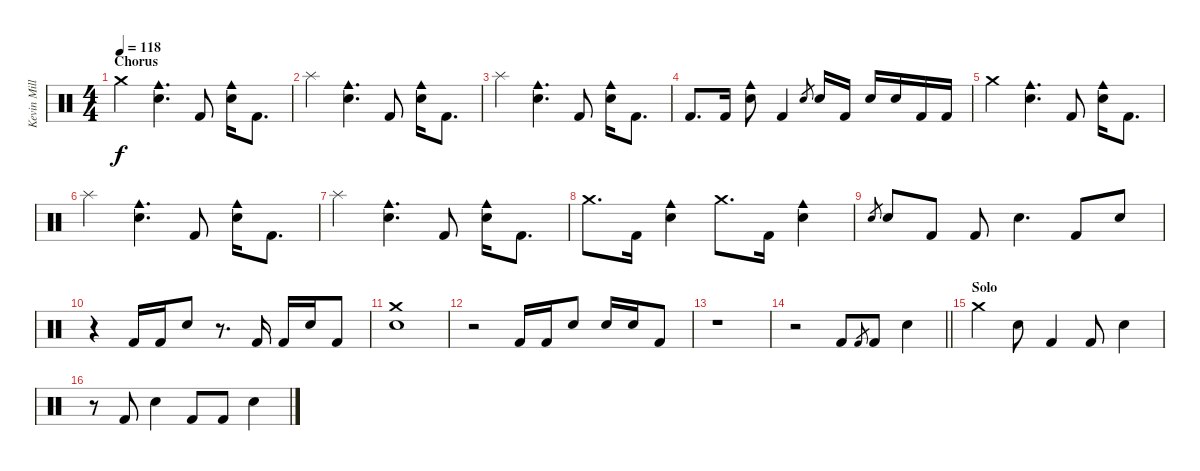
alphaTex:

\track ("Kevin Miller (Drums)" "Kevin Mill") {instrument percussion}
\staff {score}
\articulation defaults
\ts (4 4)
\section ("" "Chorus")
\tempo 118
\clef neutral
\ks c "Crash medium (hit)".4{dy f}
("Electric Snare (hit)" "Cowbell medium (hit)").4{d} "Kick (hit) 2".8 ("Electric Snare (hit)" "Cowbell medium (hit)").16 "Kick (hit) 2".8{d} |
"Splash (hit)".4 ("Electric Snare (hit)" "Cowbell medium (hit)").4{d} "Kick (hit) 2".8 ("Electric Snare (hit)" "Cowbell medium (hit)").16 "Kick (hit) 2".8{d} |
"Splash (hit)".4 ("Electric Snare (hit)" "Cowbell medium (hit)").4{d} "Kick (hit) 2".8 ("Electric Snare (hit)" "Cowbell medium (hit)").16 "Kick (hit) 2".8{d} |
"Kick (hit) 2".8{d} "Kick (hit) 2".16 ("Electric Snare (hit)" "Cowbell medium (hit)").8 "Kick (hit) 2".4 "Electric Snare (hit)".8{gr} "Electric Snare (hit)".16 "Kick (hit) 2".16 "Electric Snare (hit)".16 "Electric Snare (hit)".16 "Kick (hit) 2".16 "Kick (hit) 2".16 |
"Crash medium (hit)".4 ("Electric Snare (hit)" "Cowbell medium (hit)").4{d} "Kick (hit) 2".8 ("Electric Snare (hit)" "Cowbell medium (hit)").16 "Kick (hit) 2".8{d} |
"Splash (hit)".4 ("Electric Snare (hit)" "Cowbell medium (hit)").4{d} "Kick (hit) 2".8 ("Electric Snare (hit)" "Cowbell medium (hit)").16 "Kick (hit) 2".8{d} |
"Splash (hit)".4 ("Electric Snare (hit)" "Cowbell medium (hit)").4{d} "Kick (hit) 2".8 ("Electric Snare (hit)" "Cowbell medium (hit)").16 "Kick (hit) 2".8{d} |
"Crash medium (hit)".8{d} "Kick (hit) 2".16 ("Electric Snare (hit)" "Cowbell medium (hit)").4 "Crash medium (hit)".8{d} "Kick (hit) 2".16 ("Electric Snare (hit)" "Cowbell medium (hit)").4 |
"Electric Snare (hit)".8{gr} "Electric Snare (hit)".8 "Kick (hit) 2".8 "Kick (hit) 2".8 "Electric Snare (hit)".4{d} "Kick (hit) 2".8 "Electric Snare (hit)".8 |
r.4 "Kick (hit) 2".16 "Kick (hit) 2".16 "Electric Snare (hit)".8 r.8{d} "Kick (hit) 2".16 "Kick (hit) 2".16 "Electric Snare (hit)".16 "Kick (hit) 2".8 |
("Crash medium (hit)" "Electric Snare (hit)").1 |
r.2 "Kick (hit) 2".16 "Kick (hit) 2".16 "Electric Snare (hit)".8 "Electric Snare (hit)".16 "Electric Snare (hit)".16 "Kick (hit) 2".8 |
r.1 |
\barLineRight lightlight
r.2 "Kick (hit) 2".8 "Kick (hit) 2".8{gr} "Kick (hit) 2".8 "Electric Snare (hit)".4 |
\section ("" "Solo")
"Crash medium (hit)".4 "Electric Snare (hit)".8 "Kick (hit) 2".4 "Kick (hit) 2".8 "Electric Snare (hit)".4 |
r.8 "Kick (hit) 2".8 "Electric Snare (hit)".4 "Kick (hit) 2".8 "Kick (hit) 2".8 "Electric Snare (hit)".4
